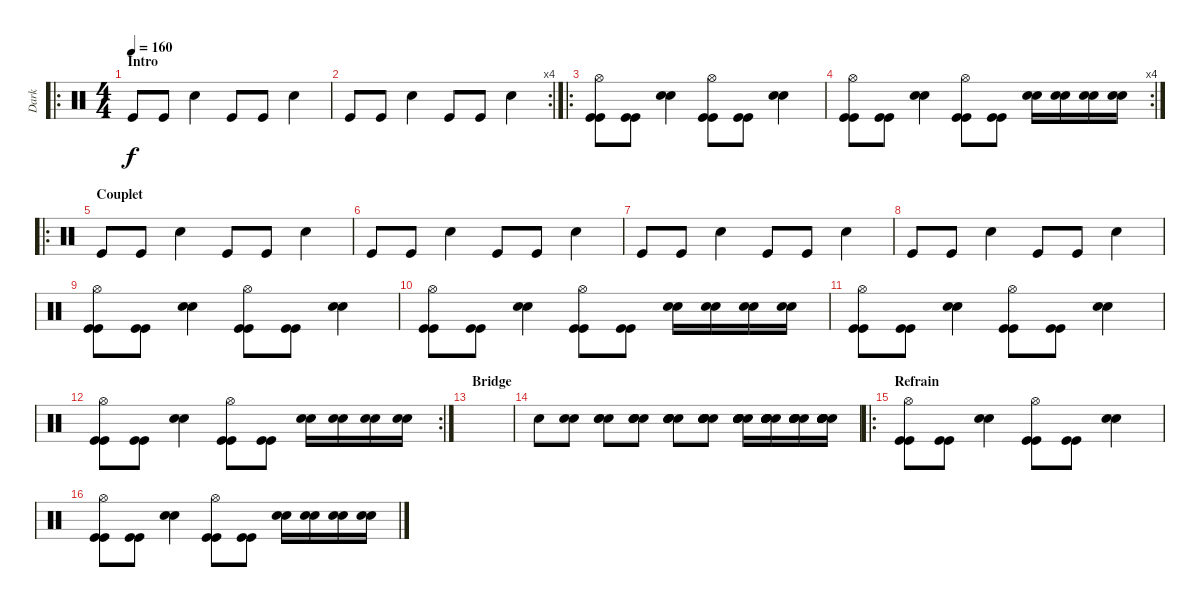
\track ("Dark" "Dark") {instrument percussion}
\staff {score}
\articulation defaults
\ro
\ts (4 4)
\section ("" "Intro")
\tempo 160
\clef neutral
\ks c "Kick (hit)".8{dy f} "Kick (hit)".8 "Snare (hit) 2".4 "Kick (hit)".8 "Kick (hit)".8 "Snare (hit) 2".4
|
\rc 4 "Kick (hit)".8 "Kick (hit)".8 "Snare (hit) 2".4 "Kick (hit)".8 "Kick (hit)".8 "Snare (hit) 2".4
|
\ro
("Hi-Hat (open)" "Kick (hit)" "Kick (hit)").8 ("Kick (hit)" "Kick (hit)").8 ("Snare (hit) 2" "Snare (hit) 2").4 ("Hi-Hat (open)" "Kick (hit)" "Kick (hit)").8 ("Kick (hit)" "Kick (hit)").8 ("Snare (hit) 2" "Snare (hit) 2").4 |
\rc 4
("Hi-Hat (open)" "Kick (hit)" "Kick (hit)").8 ("Kick (hit)" "Kick (hit)").8 ("Snare (hit) 2" "Snare (hit) 2").4 ("Hi-Hat (open)" "Kick (hit)" "Kick (hit)").8 ("Kick (hit)" "Kick (hit)").8 ("Snare (hit) 2" "Snare (hit) 2").16 ("Snare (hit) 2" "Snare (hit) 2").16 ("Snare (hit) 2" "Snare (hit) 2").16 ("Snare (hit) 2" "Snare (hit) 2").16 |
\ro
\section ("" "Couplet")
"Kick (hit)".8 "Kick (hit)".8 "Snare (hit) 2".4 "Kick (hit)".8 "Kick (hit)".8 "Snare (hit) 2".4 |
"Kick (hit)".8 "Kick (hit)".8 "Snare (hit) 2".4 "Kick (hit)".8 "Kick (hit)".8 "Snare (hit) 2".4 |
"Kick (hit)".8 "Kick (hit)".8 "Snare (hit) 2".4 "Kick (hit)".8 "Kick (hit)".8 "Snare (hit) 2".4 |
"Kick (hit)".8 "Kick (hit)".8 "Snare (hit) 2".4 "Kick (hit)".8 "Kick (hit)".8 "Snare (hit) 2".4 |
("Hi-Hat (open)" "Kick (hit)" "Kick (hit)").8 ("Kick (hit)" "Kick (hit)").8 ("Snare (hit) 2" "Snare (hit) 2").4 ("Hi-Hat (open)" "Kick (hit)" "Kick (hit)").8 ("Kick (hit)" "Kick (hit)").8 ("Snare (hit) 2" "Snare (hit) 2").4 |
("Hi-Hat (open)" "Kick (hit)" "Kick (hit)").8 ("Kick (hit)" "Kick (hit)").8 ("Snare (hit) 2" "Snare (hit) 2").4 ("Hi-Hat (open)" "Kick (hit)" "Kick (hit)").8 ("Kick (hit)" "Kick (hit)").8 ("Snare (hit) 2" "Snare (hit) 2").16 ("Snare (hit) 2" "Snare (hit) 2").16 ("Snare (hit) 2" "Snare (hit) 2").16 ("Snare (hit) 2" "Snare (hit) 2").16 |
("Hi-Hat (open)" "Kick (hit)" "Kick (hit)").8 ("Kick (hit)" "Kick (hit)").8 ("Snare (hit) 2" "Snare (hit) 2").4 ("Hi-Hat (open)" "Kick (hit)" "Kick (hit)").8 ("Kick (hit)" "Kick (hit)").8 ("Snare (hit) 2" "Snare (hit) 2").4 |
\rc 2
("Hi-Hat (open)" "Kick (hit)" "Kick (hit)").8 ("Kick (hit)" "Kick (hit)").8 ("Snare (hit) 2" "Snare (hit) 2").4 ("Hi-Hat (open)" "Kick (hit)" "Kick (hit)").8 ("Kick (hit)" "Kick (hit)").8 ("Snare (hit) 2" "Snare (hit) 2").16 ("Snare (hit) 2" "Snare (hit) 2").16 ("Snare (hit) 2" "Snare (hit) 2").16 ("Snare (hit) 2" "Snare (hit) 2").16 |
\section ("" "Bridge")
|
"Snare (hit) 2".8 ("Snare (hit) 2" "Snare (hit) 2").8 ("Snare (hit) 2" "Snare (hit) 2" "Snare (hit) 2").8 ("Snare (hit) 2" "Snare (hit) 2" "Snare (hit) 2" "Snare (hit) 2").8 ("Snare (hit) 2" "Snare (hit) 2" "Snare (hit) 2" "Snare (hit) 2" "Snare (hit) 2").8 ("Snare (hit) 2" "Snare (hit) 2" "Snare (hit) 2" "Snare (hit) 2" "Snare (hit) 2" "Snare (hit) 2").8 ("Snare (hit) 2" "Snare (hit) 2" "Snare (hit) 2" "Snare (hit) 2" "Snare (hit) 2" "Snare (hit) 2").16 ("Snare (hit) 2" "Snare (hit) 2" "Snare (hit) 2" "Snare (hit) 2" "Snare (hit) 2" "Snare (hit) 2").16 ("Snare (hit) 2" "Snare (hit) 2" "Snare (hit) 2" "Snare (hit) 2" "Snare (hit) 2" "Snare (hit) 2").16 ("Snare (hit) 2" "Snare (hit) 2" "Snare (hit) 2" "Snare (hit) 2" "Snare (hit) 2" "Snare (hit) 2").16 |
\ro
\section ("" "Refrain")
("Hi-Hat (open)" "Kick (hit)" "Kick (hit)").8 ("Kick (hit)" "Kick (hit)").8 ("Snare (hit) 2" "Snare (hit) 2").4 ("Hi-Hat (open)" "Kick (hit)" "Kick (hit)").8 ("Kick (hit)" "Kick (hit)").8 ("Snare (hit) 2" "Snare (hit) 2").4 |
("Hi-Hat (open)" "Kick (hit)" "Kick (hit)").8 ("Kick (hit)" "Kick (hit)").8 ("Snare (hit) 2" "Snare (hit) 2").4 ("Hi-Hat (open)" "Kick (hit)" "Kick (hit)").8 ("Kick (hit)" "Kick (hit)").8 ("Snare (hit) 2" "Snare (hit) 2").16 ("Snare (hit) 2" "Snare (hit) 2").16 ("Snare (hit) 2" "Snare (hit) 2").16 ("Snare (hit) 2" "Snare (hit) 2").16
